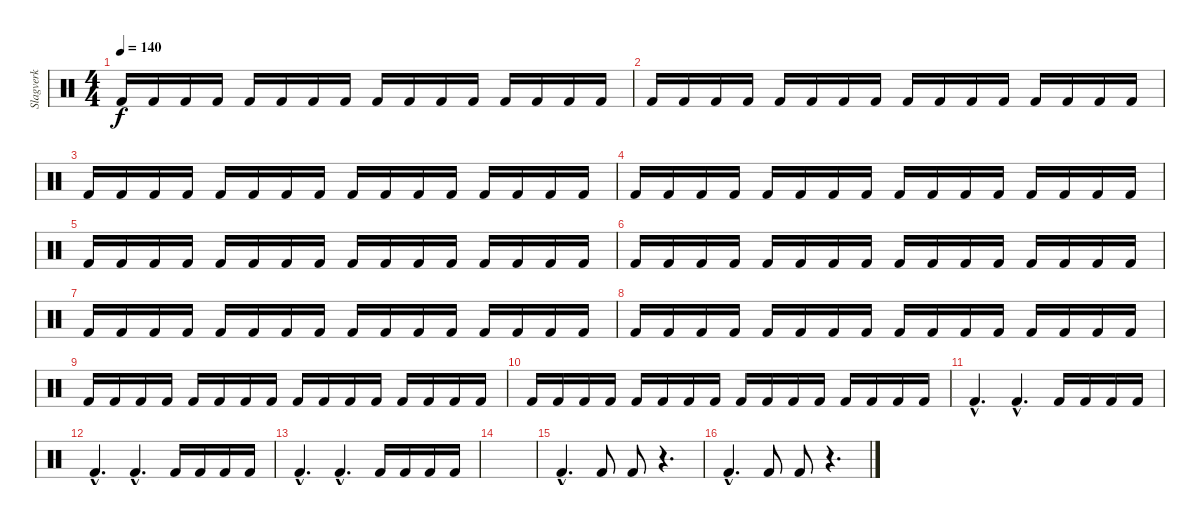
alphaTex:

\track ("Slagverk" "Slagverk") {instrument percussion}
\staff {score}
\articulation defaults
\ts (4 4)
\tempo 140
\clef neutral
\ks c "Kick (hit) 2".16{dy f} "Kick (hit) 2".16 "Kick (hit) 2".16 "Kick (hit) 2".16 "Kick (hit) 2".16 "Kick (hit) 2".16 "Kick (hit) 2".16 "Kick (hit) 2".16 "Kick (hit) 2".16 "Kick (hit) 2".16 "Kick (hit) 2".16 "Kick (hit) 2".16 "Kick (hit) 2".16 "Kick (hit) 2".16 "Kick (hit) 2".16 "Kick (hit) 2".16
|
"Kick (hit) 2".16 "Kick (hit) 2".16 "Kick (hit) 2".16 "Kick (hit) 2".16 "Kick (hit) 2".16 "Kick (hit) 2".16 "Kick (hit) 2".16 "Kick (hit) 2".16 "Kick (hit) 2".16 "Kick (hit) 2".16 "Kick (hit) 2".16 "Kick (hit) 2".16 "Kick (hit) 2".16 "Kick (hit) 2".16 "Kick (hit) 2".16 "Kick (hit) 2".16 |
"Kick (hit) 2".16 "Kick (hit) 2".16 "Kick (hit) 2".16 "Kick (hit) 2".16 "Kick (hit) 2".16 "Kick (hit) 2".16 "Kick (hit) 2".16 "Kick (hit) 2".16 "Kick (hit) 2".16 "Kick (hit) 2".16 "Kick (hit) 2".16 "Kick (hit) 2".16 "Kick (hit) 2".16 "Kick (hit) 2".16 "Kick (hit) 2".16 "Kick (hit) 2".16 |
"Kick (hit) 2".16 "Kick (hit) 2".16 "Kick (hit) 2".16 "Kick (hit) 2".16 "Kick (hit) 2".16 "Kick (hit) 2".16 "Kick (hit) 2".16 "Kick (hit) 2".16 "Kick (hit) 2".16 "Kick (hit) 2".16 "Kick (hit) 2".16 "Kick (hit) 2".16 "Kick (hit) 2".16 "Kick (hit) 2".16 "Kick (hit) 2".16 "Kick (hit) 2".16 |
"Kick (hit) 2".16 "Kick (hit) 2".16 "Kick (hit) 2".16 "Kick (hit) 2".16 "Kick (hit) 2".16 "Kick (hit) 2".16 "Kick (hit) 2".16 "Kick (hit) 2".16 "Kick (hit) 2".16 "Kick (hit) 2".16 "Kick (hit) 2".16 "Kick (hit) 2".16 "Kick (hit) 2".16 "Kick (hit) 2".16 "Kick (hit) 2".16 "Kick (hit) 2".16 |
"Kick (hit) 2".16 "Kick (hit) 2".16 "Kick (hit) 2".16 "Kick (hit) 2".16 "Kick (hit) 2".16 "Kick (hit) 2".16 "Kick (hit) 2".16 "Kick (hit) 2".16 "Kick (hit) 2".16 "Kick (hit) 2".16 "Kick (hit) 2".16 "Kick (hit) 2".16 "Kick (hit) 2".16 "Kick (hit) 2".16 "Kick (hit) 2".16 "Kick (hit) 2".16 |
"Kick (hit) 2".16 "Kick (hit) 2".16 "Kick (hit) 2".16 "Kick (hit) 2".16 "Kick (hit) 2".16 "Kick (hit) 2".16 "Kick (hit) 2".16 "Kick (hit) 2".16 "Kick (hit) 2".16 "Kick (hit) 2".16 "Kick (hit) 2".16 "Kick (hit) 2".16 "Kick (hit) 2".16 "Kick (hit) 2".16 "Kick (hit) 2".16 "Kick (hit) 2".16 |
"Kick (hit) 2".16 "Kick (hit) 2".16 "Kick (hit) 2".16 "Kick (hit) 2".16 "Kick (hit) 2".16 "Kick (hit) 2".16 "Kick (hit) 2".16 "Kick (hit) 2".16 "Kick (hit) 2".16 "Kick (hit) 2".16 "Kick (hit) 2".16 "Kick (hit) 2".16 "Kick (hit) 2".16 "Kick (hit) 2".16 "Kick (hit) 2".16 "Kick (hit) 2".16 |
"Kick (hit) 2".16 "Kick (hit) 2".16 "Kick (hit) 2".16 "Kick (hit) 2".16 "Kick (hit) 2".16 "Kick (hit) 2".16 "Kick (hit) 2".16 "Kick (hit) 2".16 "Kick (hit) 2".16 "Kick (hit) 2".16 "Kick (hit) 2".16 "Kick (hit) 2".16 "Kick (hit) 2".16 "Kick (hit) 2".16 "Kick (hit) 2".16 "Kick (hit) 2".16 |
"Kick (hit) 2".16 "Kick (hit) 2".16 "Kick (hit) 2".16 "Kick (hit) 2".16 "Kick (hit) 2".16 "Kick (hit) 2".16 "Kick (hit) 2".16 "Kick (hit) 2".16 "Kick (hit) 2".16 "Kick (hit) 2".16 "Kick (hit) 2".16 "Kick (hit) 2".16 "Kick (hit) 2".16 "Kick (hit) 2".16 "Kick (hit) 2".16 "Kick (hit) 2".16 |
"Kick (hit) 2"{hac}.4{d} "Kick (hit) 2"{hac}.4{d} "Kick (hit) 2".16 "Kick (hit) 2".16 "Kick (hit) 2".16 "Kick (hit) 2".16 |
"Kick (hit) 2"{hac}.4{d} "Kick (hit) 2"{hac}.4{d} "Kick (hit) 2".16 "Kick (hit) 2".16 "Kick (hit) 2".16 "Kick (hit) 2".16 |
"Kick (hit) 2"{hac}.4{d} "Kick (hit) 2"{hac}.4{d} "Kick (hit) 2".16 "Kick (hit) 2".16 "Kick (hit) 2".16 "Kick (hit) 2".16 |
|
"Kick (hit) 2"{hac}.4{d} "Kick (hit) 2".8 "Kick (hit) 2".8 r.4{d} |
"Kick (hit) 2"{hac}.4{d} "Kick (hit) 2".8 "Kick (hit) 2".8 r.4{d}
